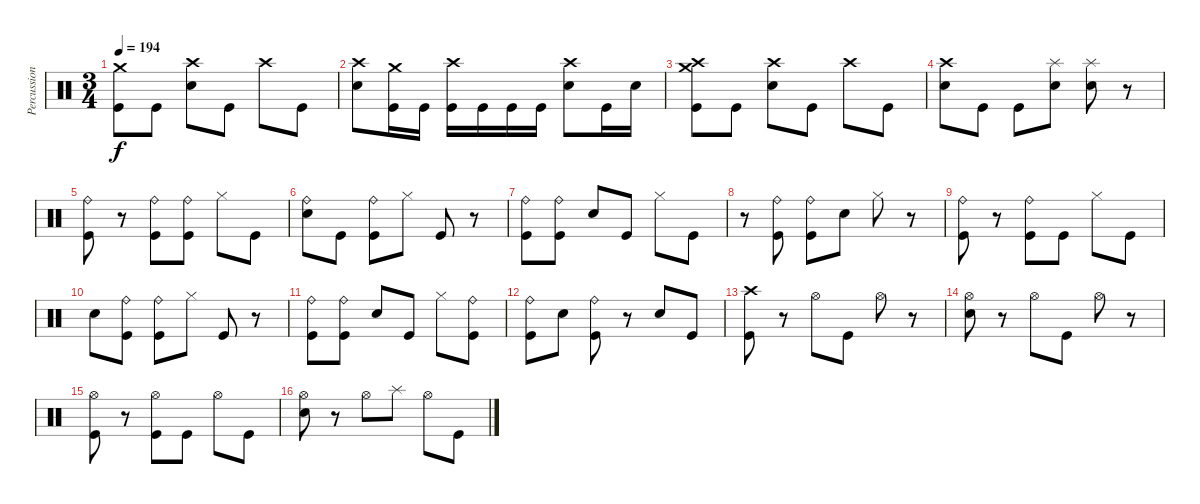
\track ("Percussion" "Percussion") {instrument percussion}
\staff {score}
\articulation defaults
\ts (3 4)
\tempo 194
\clef neutral
\ks c
("Kick (hit)" "Crash medium (hit)").8{dy f} "Kick (hit)".8 ("Snare (hit) 2" "Crash high (hit)").8 "Kick (hit)".8 "Crash high (hit)".8 "Kick (hit)".8 |
("Snare (hit) 2" "Crash high (hit)").8 ("Kick (hit)" "Crash medium (hit)").16 "Kick (hit)".16 ("Kick (hit)" "Crash high (hit)").16 "Kick (hit)".16 "Kick (hit)".16 "Kick (hit)".16 ("Snare (hit) 2" "Crash high (hit)").8 "Kick (hit)".16 "Snare (hit) 2".16 |
("Kick (hit)" "Crash high (hit)" "Crash medium (hit)").8 "Kick (hit)".8 ("Snare (hit) 2" "Crash high (hit)").8 "Kick (hit)".8 "Crash high (hit)".8 "Kick (hit)".8 |
("Snare (hit) 2" "Crash high (hit)").8 "Kick (hit)".8 "Kick (hit)".8 ("Splash (hit)" "Snare (hit) 2").8 ("Splash (hit)" "Snare (hit) 2").8 r.8 |
("Ride (bell)" "Kick (hit)").8 r.8 ("Ride (bell)" "Kick (hit)").8 ("Ride (bell)" "Kick (hit)").8 "Hi-Hat (closed)".8 "Kick (hit)".8 |
("Snare (hit) 2" "Ride (bell)").8 "Kick (hit)".8 ("Ride (bell)" "Kick (hit)").8 "Hi-Hat (closed)".8 "Kick (hit)".8 r.8 |
("Ride (bell)" "Kick (hit)").8 ("Ride (bell)" "Kick (hit)").8 "Snare (hit) 2".8 "Kick (hit)".8 "Hi-Hat (closed)".8 "Kick (hit)".8 |
r.8 ("Ride (bell)" "Kick (hit)").8 ("Ride (bell)" "Kick (hit)").8 "Snare (hit) 2".8 "Hi-Hat (closed)".8 r.8 |
("Ride (bell)" "Kick (hit)").8 r.8 ("Ride (bell)" "Kick (hit)").8 "Kick (hit)".8 "Hi-Hat (closed)".8 "Kick (hit)".8 |
"Snare (hit) 2".8 ("Ride (bell)" "Kick (hit)").8 ("Ride (bell)" "Kick (hit)").8 "Hi-Hat (closed)".8 "Kick (hit)".8 r.8 |
("Ride (bell)" "Kick (hit)").8 ("Ride (bell)" "Kick (hit)").8 "Snare (hit) 2".8 "Kick (hit)".8 "Hi-Hat (closed)".8 ("Ride (bell)" "Kick (hit)").8 |
("Ride (bell)" "Kick (hit)").8 "Snare (hit) 2".8 ("Ride (bell)" "Kick (hit)").8 r.8 "Snare (hit) 2".8 "Kick (hit)".8 |
("Crash high (hit)" "Kick (hit)").8 r.8 "Hi-Hat (open)".8 "Kick (hit)".8 "Hi-Hat (open)".8 r.8 |
("Hi-Hat (open)" "Snare (hit) 2").8 r.8 "Hi-Hat (open)".8 "Kick (hit)".8 "Hi-Hat (open)".8 r.8 |
("Hi-Hat (open)" "Kick (hit)").8 r.8 ("Hi-Hat (open)" "Kick (hit)").8 "Kick (hit)".8 "Hi-Hat (open)".8 "Kick (hit)".8 |
("Snare (hit) 2" "Hi-Hat (open)").8 r.8 "Hi-Hat (open)".8 "Splash (hit)".8 "Hi-Hat (open)".8 "Kick (hit)".8
